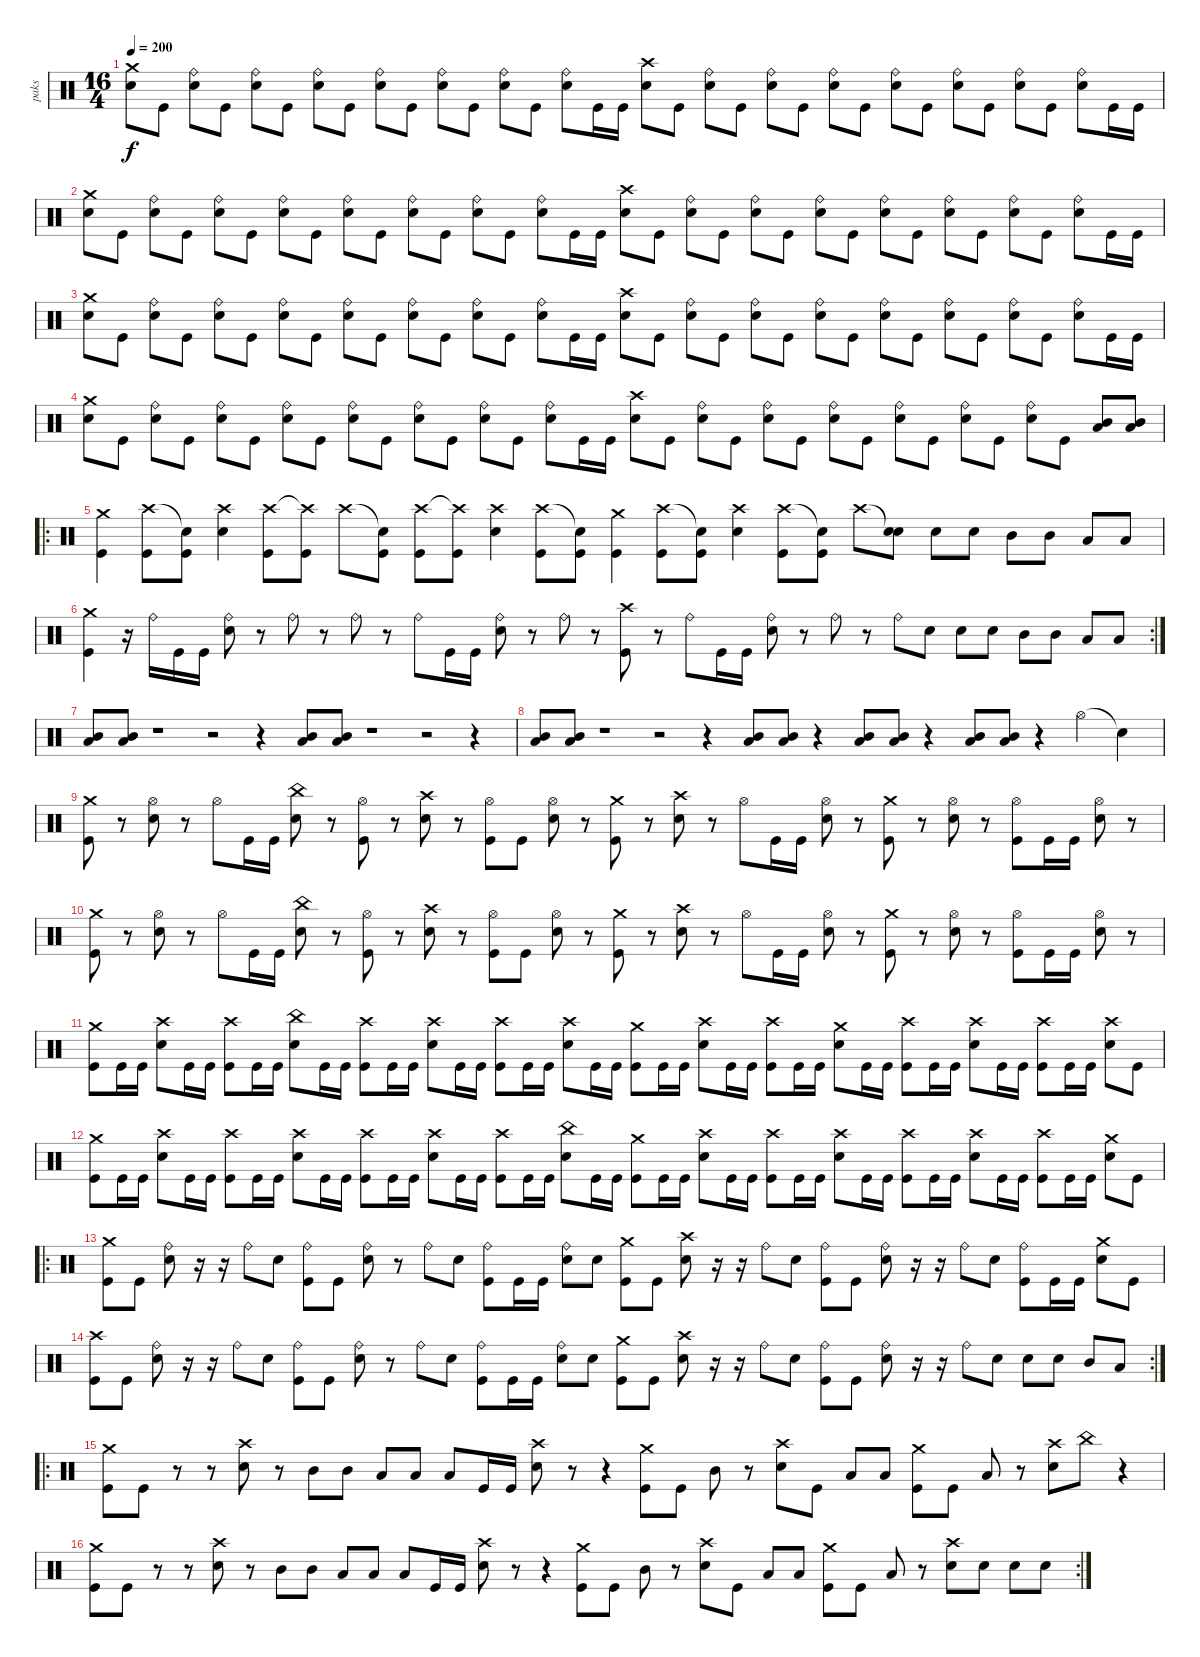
\track ("paks" "paks") {instrument percussion}
\staff {score}
\articulation defaults
\ts (16 4)
\tempo 200
\clef neutral
\ks c
("Crash medium (hit)" "Electric Snare (hit)").8{dy f} "Kick (hit)".8 ("Ride (bell)" "Electric Snare (hit)").8 "Kick (hit)".8 ("Ride (bell)" "Electric Snare (hit)").8 "Kick (hit)".8 ("Ride (bell)" "Electric Snare (hit)").8 "Kick (hit)".8 ("Ride (bell)" "Electric Snare (hit)").8 "Kick (hit)".8 ("Ride (bell)" "Electric Snare (hit)").8 "Kick (hit)".8 ("Ride (bell)" "Electric Snare (hit)").8 "Kick (hit)".8 ("Ride (bell)" "Electric Snare (hit)").8 "Kick (hit)".16 "Kick (hit)".16 ("Crash high (hit)" "Electric Snare (hit)").8 "Kick (hit)".8 ("Ride (bell)" "Electric Snare (hit)").8 "Kick (hit)".8 ("Ride (bell)" "Electric Snare (hit)").8 "Kick (hit)".8 ("Ride (bell)" "Electric Snare (hit)").8 "Kick (hit)".8 ("Ride (bell)" "Electric Snare (hit)").8 "Kick (hit)".8 ("Ride (bell)" "Electric Snare (hit)").8 "Kick (hit)".8 ("Ride (bell)" "Electric Snare (hit)").8 "Kick (hit)".8 ("Ride (bell)" "Electric Snare (hit)").8 "Kick (hit)".16 "Kick (hit)".16 |
("Crash medium (hit)" "Electric Snare (hit)").8 "Kick (hit)".8 ("Ride (bell)" "Electric Snare (hit)").8 "Kick (hit)".8 ("Ride (bell)" "Electric Snare (hit)").8 "Kick (hit)".8 ("Ride (bell)" "Electric Snare (hit)").8 "Kick (hit)".8 ("Ride (bell)" "Electric Snare (hit)").8 "Kick (hit)".8 ("Ride (bell)" "Electric Snare (hit)").8 "Kick (hit)".8 ("Ride (bell)" "Electric Snare (hit)").8 "Kick (hit)".8 ("Ride (bell)" "Electric Snare (hit)").8 "Kick (hit)".16 "Kick (hit)".16 ("Crash high (hit)" "Electric Snare (hit)").8 "Kick (hit)".8 ("Ride (bell)" "Electric Snare (hit)").8 "Kick (hit)".8 ("Ride (bell)" "Electric Snare (hit)").8 "Kick (hit)".8 ("Ride (bell)" "Electric Snare (hit)").8 "Kick (hit)".8 ("Ride (bell)" "Electric Snare (hit)").8 "Kick (hit)".8 ("Ride (bell)" "Electric Snare (hit)").8 "Kick (hit)".8 ("Ride (bell)" "Electric Snare (hit)").8 "Kick (hit)".8 ("Ride (bell)" "Electric Snare (hit)").8 "Kick (hit)".16 "Kick (hit)".16 |
("Crash medium (hit)" "Electric Snare (hit)").8 "Kick (hit)".8 ("Ride (bell)" "Electric Snare (hit)").8 "Kick (hit)".8 ("Ride (bell)" "Electric Snare (hit)").8 "Kick (hit)".8 ("Ride (bell)" "Electric Snare (hit)").8 "Kick (hit)".8 ("Ride (bell)" "Electric Snare (hit)").8 "Kick (hit)".8 ("Ride (bell)" "Electric Snare (hit)").8 "Kick (hit)".8 ("Ride (bell)" "Electric Snare (hit)").8 "Kick (hit)".8 ("Ride (bell)" "Electric Snare (hit)").8 "Kick (hit)".16 "Kick (hit)".16 ("Crash high (hit)" "Electric Snare (hit)").8 "Kick (hit)".8 ("Ride (bell)" "Electric Snare (hit)").8 "Kick (hit)".8 ("Ride (bell)" "Electric Snare (hit)").8 "Kick (hit)".8 ("Ride (bell)" "Electric Snare (hit)").8 "Kick (hit)".8 ("Ride (bell)" "Electric Snare (hit)").8 "Kick (hit)".8 ("Ride (bell)" "Electric Snare (hit)").8 "Kick (hit)".8 ("Ride (bell)" "Electric Snare (hit)").8 "Kick (hit)".8 ("Ride (bell)" "Electric Snare (hit)").8 "Kick (hit)".16 "Kick (hit)".16 |
("Crash medium (hit)" "Electric Snare (hit)").8 "Kick (hit)".8 ("Ride (bell)" "Electric Snare (hit)").8 "Kick (hit)".8 ("Ride (bell)" "Electric Snare (hit)").8 "Kick (hit)".8 ("Ride (bell)" "Electric Snare (hit)").8 "Kick (hit)".8 ("Ride (bell)" "Electric Snare (hit)").8 "Kick (hit)".8 ("Ride (bell)" "Electric Snare (hit)").8 "Kick (hit)".8 ("Ride (bell)" "Electric Snare (hit)").8 "Kick (hit)".8 ("Ride (bell)" "Electric Snare (hit)").8 "Kick (hit)".16 "Kick (hit)".16 ("Crash high (hit)" "Electric Snare (hit)").8 "Kick (hit)".8 ("Ride (bell)" "Electric Snare (hit)").8 "Kick (hit)".8 ("Ride (bell)" "Electric Snare (hit)").8 "Kick (hit)".8 ("Ride (bell)" "Electric Snare (hit)").8 "Kick (hit)".8 ("Ride (bell)" "Electric Snare (hit)").8 "Kick (hit)".8 ("Ride (bell)" "Electric Snare (hit)").8 "Kick (hit)".8 ("Ride (bell)" "Electric Snare (hit)").8 "Kick (hit)".8 ("Mid Tom (hit)" "Low Floor Tom (hit)").8 ("Mid Tom (hit)" "Low Floor Tom (hit)").8 |
\ro
("Crash medium (hit)" "Kick (hit)").4 ("Crash high (hit)" "Kick (hit)").8 ("Snare (hit)"{t} "Kick (hit)").8 ("Crash high (hit)" "Electric Snare (hit)").4 ("Crash high (hit)" "Kick (hit)").8 ("Crash high (hit)"{t} "Kick (hit)").8 "Crash high (hit)".8 ("Snare (hit)"{t} "Kick (hit)").8 ("Crash high (hit)" "Kick (hit)").8 ("Crash high (hit)"{t} "Kick (hit)").8 ("Crash high (hit)" "Electric Snare (hit)").4 ("Crash high (hit)" "Kick (hit)").8 ("Snare (hit)"{t} "Kick (hit)").8 ("Crash medium (hit)" "Kick (hit)").4 ("Crash high (hit)" "Kick (hit)").8 ("Snare (hit)"{t} "Kick (hit)").8 ("Crash high (hit)" "Electric Snare (hit)").4 ("Crash high (hit)" "Kick (hit)").8 ("Snare (hit)"{t} "Kick (hit)").8 "Crash high (hit)".8 ("Snare (hit)"{t} "Electric Snare (hit)").8 "Electric Snare (hit)".8 "Electric Snare (hit)".8 "Mid Tom (hit)".8 "Mid Tom (hit)".8 "Low Floor Tom (hit)".8 "Low Floor Tom (hit)".8 |
\rc 2
("Crash medium (hit)" "Kick (hit)").4 r.16 "Ride (bell)".16 "Kick (hit)".16 "Kick (hit)".16 ("Ride (bell)" "Electric Snare (hit)").8 r.8 "Ride (bell)".8 r.8 "Ride (bell)".8 r.8 "Ride (bell)".8 "Kick (hit)".16 "Kick (hit)".16 ("Ride (bell)" "Electric Snare (hit)").8 r.8 "Ride (bell)".8 r.8 ("Crash high (hit)" "Kick (hit)").8 r.8 "Ride (bell)".8 "Kick (hit)".16 "Kick (hit)".16 ("Ride (bell)" "Electric Snare (hit)").8 r.8 "Ride (bell)".8 r.8 "Ride (bell)".8 "Electric Snare (hit)".8 "Electric Snare (hit)".8 "Electric Snare (hit)".8 "Mid Tom (hit)".8 "Mid Tom (hit)".8 "Low Floor Tom (hit)".8 "Low Floor Tom (hit)".8 |
("Mid Tom (hit)" "Low Floor Tom (hit)").8 ("Mid Tom (hit)" "Low Floor Tom (hit)").8 r.1 r.2 r.4 ("Mid Tom (hit)" "Low Floor Tom (hit)").8 ("Mid Tom (hit)" "Low Floor Tom (hit)").8 r.1 r.2 r.4 |
("Mid Tom (hit)" "Low Floor Tom (hit)").8 ("Mid Tom (hit)" "Low Floor Tom (hit)").8 r.1 r.2 r.4 ("Mid Tom (hit)" "Low Floor Tom (hit)").8 ("Mid Tom (hit)" "Low Floor Tom (hit)").8 r.4 ("Low Floor Tom (hit)" "Mid Tom (hit)").8 ("Low Floor Tom (hit)" "Mid Tom (hit)").8 r.4 ("Mid Tom (hit)" "Low Floor Tom (hit)").8 ("Mid Tom (hit)" "Low Floor Tom (hit)").8 r.4 "Hi-Hat (open)".4 "Snare (hit)"{t}.4 |
("Crash medium (hit)" "Kick (hit)").8 r.8 ("Hi-Hat (open)" "Electric Snare (hit)").8 r.8 "Hi-Hat (open)".8 "Kick (hit)".16 "Kick (hit)".16 ("China (hit)" "Electric Snare (hit)").8 r.8 ("Hi-Hat (open)" "Kick (hit)").8 r.8 ("Crash high (hit)" "Electric Snare (hit)").8 r.8 ("Hi-Hat (open)" "Kick (hit)").8 "Kick (hit)".8 ("Hi-Hat (open)" "Electric Snare (hit)").8 r.8 ("Crash medium (hit)" "Kick (hit)").8 r.8 ("Crash high (hit)" "Electric Snare (hit)").8 r.8 "Hi-Hat (open)".8 "Kick (hit)".16 "Kick (hit)".16 ("Hi-Hat (open)" "Electric Snare (hit)").8 r.8 ("Crash medium (hit)" "Kick (hit)").8 r.8 ("Hi-Hat (open)" "Electric Snare (hit)").8 r.8 ("Hi-Hat (open)" "Kick (hit)").8 "Kick (hit)".16 "Kick (hit)".16 ("Hi-Hat (open)" "Electric Snare (hit)").8 r.8 |
("Crash medium (hit)" "Kick (hit)").8 r.8 ("Hi-Hat (open)" "Electric Snare (hit)").8 r.8 "Hi-Hat (open)".8 "Kick (hit)".16 "Kick (hit)".16 ("China (hit)" "Electric Snare (hit)").8 r.8 ("Hi-Hat (open)" "Kick (hit)").8 r.8 ("Crash high (hit)" "Electric Snare (hit)").8 r.8 ("Hi-Hat (open)" "Kick (hit)").8 "Kick (hit)".8 ("Hi-Hat (open)" "Electric Snare (hit)").8 r.8 ("Crash medium (hit)" "Kick (hit)").8 r.8 ("Crash high (hit)" "Electric Snare (hit)").8 r.8 "Hi-Hat (open)".8 "Kick (hit)".16 "Kick (hit)".16 ("Hi-Hat (open)" "Electric Snare (hit)").8 r.8 ("Crash medium (hit)" "Kick (hit)").8 r.8 ("Hi-Hat (open)" "Electric Snare (hit)").8 r.8 ("Hi-Hat (open)" "Kick (hit)").8 "Kick (hit)".16 "Kick (hit)".16 ("Hi-Hat (open)" "Electric Snare (hit)").8 r.8 |
("Crash medium (hit)" "Kick (hit)").8 "Kick (hit)".16 "Kick (hit)".16 ("Crash high (hit)" "Electric Snare (hit)").8 "Kick (hit)".16 "Kick (hit)".16 ("Crash high (hit)" "Kick (hit)").8 "Kick (hit)".16 "Kick (hit)".16 ("China (hit)" "Electric Snare (hit)").8 "Kick (hit)".16 "Kick (hit)".16 ("Crash high (hit)" "Kick (hit)").8 "Kick (hit)".16 "Kick (hit)".16 ("Crash high (hit)" "Electric Snare (hit)").8 "Kick (hit)".16 "Kick (hit)".16 ("Crash high (hit)" "Kick (hit)").8 "Kick (hit)".16 "Kick (hit)".16 ("Crash high (hit)" "Electric Snare (hit)").8 "Kick (hit)".16 "Kick (hit)".16 ("Crash medium (hit)" "Kick (hit)").8 "Kick (hit)".16 "Kick (hit)".16 ("Crash high (hit)" "Electric Snare (hit)").8 "Kick (hit)".16 "Kick (hit)".16 ("Crash high (hit)" "Kick (hit)").8 "Kick (hit)".16 "Kick (hit)".16 ("Crash medium (hit)" "Electric Snare (hit)").8 "Kick (hit)".16 "Kick (hit)".16 ("Crash high (hit)" "Kick (hit)").8 "Kick (hit)".16 "Kick (hit)".16 ("Crash high (hit)" "Electric Snare (hit)").8 "Kick (hit)".16 "Kick (hit)".16 ("Crash high (hit)" "Kick (hit)").8 "Kick (hit)".16 "Kick (hit)".16 ("Crash high (hit)" "Electric Snare (hit)").8 "Kick (hit)".8 |
("Crash medium (hit)" "Kick (hit)").8 "Kick (hit)".16 "Kick (hit)".16 ("Crash high (hit)" "Electric Snare (hit)").8 "Kick (hit)".16 "Kick (hit)".16 ("Crash high (hit)" "Kick (hit)").8 "Kick (hit)".16 "Kick (hit)".16 ("Crash high (hit)" "Electric Snare (hit)").8 "Kick (hit)".16 "Kick (hit)".16 ("Crash high (hit)" "Kick (hit)").8 "Kick (hit)".16 "Kick (hit)".16 ("Crash high (hit)" "Electric Snare (hit)").8 "Kick (hit)".16 "Kick (hit)".16 ("Crash high (hit)" "Kick (hit)").8 "Kick (hit)".16 "Kick (hit)".16 ("China (hit)" "Electric Snare (hit)").8 "Kick (hit)".16 "Kick (hit)".16 ("Crash medium (hit)" "Kick (hit)").8 "Kick (hit)".16 "Kick (hit)".16 ("Crash high (hit)" "Electric Snare (hit)").8 "Kick (hit)".16 "Kick (hit)".16 ("Crash high (hit)" "Kick (hit)").8 "Kick (hit)".16 "Kick (hit)".16 ("Crash high (hit)" "Electric Snare (hit)").8 "Kick (hit)".16 "Kick (hit)".16 ("Crash high (hit)" "Kick (hit)").8 "Kick (hit)".16 "Kick (hit)".16 ("Crash high (hit)" "Electric Snare (hit)").8 "Kick (hit)".16 "Kick (hit)".16 ("Crash high (hit)" "Kick (hit)").8 "Kick (hit)".16 "Kick (hit)".16 ("Crash medium (hit)" "Electric Snare (hit)").8 "Kick (hit)".8 |
\ro
("Crash medium (hit)" "Kick (hit)").8 "Kick (hit)".8 ("Ride (bell)" "Electric Snare (hit)").8 r.16 r.16 "Ride (bell)".8 "Electric Snare (hit)".8 ("Ride (bell)" "Kick (hit)").8 "Kick (hit)".8 ("Ride (bell)" "Electric Snare (hit)").8 r.8 "Ride (bell)".8 "Electric Snare (hit)".8 ("Ride (bell)" "Kick (hit)").8 "Kick (hit)".16 "Kick (hit)".16 ("Ride (bell)" "Electric Snare (hit)").8 "Electric Snare (hit)".8 ("Crash medium (hit)" "Kick (hit)").8 "Kick (hit)".8 ("Crash high (hit)" "Electric Snare (hit)").8 r.16 r.16 "Ride (bell)".8 "Electric Snare (hit)".8 ("Ride (bell)" "Kick (hit)").8 "Kick (hit)".8 ("Ride (bell)" "Electric Snare (hit)").8 r.16 r.16 "Ride (bell)".8 "Electric Snare (hit)".8 ("Ride (bell)" "Kick (hit)").8 "Kick (hit)".16 "Kick (hit)".16 ("Crash medium (hit)" "Electric Snare (hit)").8 "Kick (hit)".8 |
\rc 2
("Crash high (hit)" "Kick (hit)").8 "Kick (hit)".8 ("Ride (bell)" "Electric Snare (hit)").8 r.16 r.16 "Ride (bell)".8 "Electric Snare (hit)".8 ("Ride (bell)" "Kick (hit)").8 "Kick (hit)".8 ("Ride (bell)" "Electric Snare (hit)").8 r.8 "Ride (bell)".8 "Electric Snare (hit)".8 ("Ride (bell)" "Kick (hit)").8 "Kick (hit)".16 "Kick (hit)".16 ("Ride (bell)" "Electric Snare (hit)").8 "Electric Snare (hit)".8 ("Crash medium (hit)" "Kick (hit)").8 "Kick (hit)".8 ("Crash high (hit)" "Electric Snare (hit)").8 r.16 r.16 "Ride (bell)".8 "Electric Snare (hit)".8 ("Ride (bell)" "Kick (hit)").8 "Kick (hit)".8 ("Ride (bell)" "Electric Snare (hit)").8 r.16 r.16 "Ride (bell)".8 "Electric Snare (hit)".8 "Electric Snare (hit)".8 "Electric Snare (hit)".8 "Mid Tom (hit)".8 "Low Floor Tom (hit)".8 |
\ro
("Crash medium (hit)" "Kick (hit)").8 "Kick (hit)".8 r.8 r.8 ("Crash high (hit)" "Electric Snare (hit)").8 r.8 "Mid Tom (hit)".8 "Mid Tom (hit)".8 "Low Tom (hit)".8 "Low Tom (hit)".8 "Low Floor Tom (hit)".8 "Kick (hit)".16 "Kick (hit)".16 ("Crash high (hit)" "Electric Snare (hit)").8 r.8 r.4 ("Crash medium (hit)" "Kick (hit)").8 "Kick (hit)".8 "Mid Tom (hit)".8 r.8 ("Crash high (hit)" "Electric Snare (hit)").8 "Kick (hit)".8 "Low Tom (hit)".8 "Low Tom (hit)".8 ("Crash medium (hit)" "Kick (hit)").8 "Kick (hit)".8 "Low Floor Tom (hit)".8 r.8 ("Crash high (hit)" "Electric Snare (hit)").8 "China (hit)".8 r.4 |
\rc 2
("Crash medium (hit)" "Kick (hit)").8 "Kick (hit)".8 r.8 r.8 ("Crash high (hit)" "Electric Snare (hit)").8 r.8 "Mid Tom (hit)".8 "Mid Tom (hit)".8 "Low Tom (hit)".8 "Low Tom (hit)".8 "Low Floor Tom (hit)".8 "Kick (hit)".16 "Kick (hit)".16 ("Crash high (hit)" "Electric Snare (hit)").8 r.8 r.4 ("Crash medium (hit)" "Kick (hit)").8 "Kick (hit)".8 "Mid Tom (hit)".8 r.8 ("Crash high (hit)" "Electric Snare (hit)").8 "Kick (hit)".8 "Low Tom (hit)".8 "Low Tom (hit)".8 ("Crash medium (hit)" "Kick (hit)").8 "Kick (hit)".8 "Low Floor Tom (hit)".8 r.8 ("Crash high (hit)" "Electric Snare (hit)").8 "Electric Snare (hit)".8 "Electric Snare (hit)".8 "Electric Snare (hit)".8
